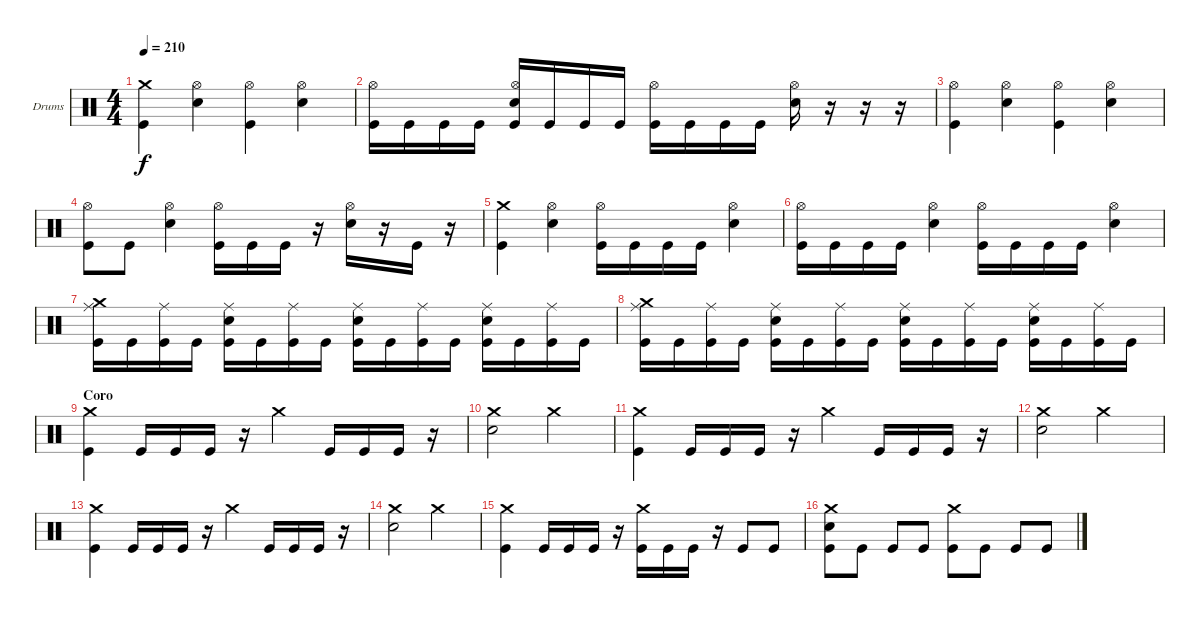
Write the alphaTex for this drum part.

\bracketExtendMode groupsimilarinstruments
\firstSystemTrackNameOrientation horizontal
\otherSystemsTrackNameOrientation horizontal
\track ("Drumkit" "Drums") {instrument percussion}
\staff {score}
\articulation defaults
\ts (4 4)
\tempo 210
\clef neutral
\ks c
("Crash medium (hit)" "Kick (hit)").4{dy f} ("Hi-Hat (open)" "Snare (hit) 2").4 ("Hi-Hat (open)" "Kick (hit)").4 ("Hi-Hat (open)" "Snare (hit) 2").4 |
("Hi-Hat (open)" "Kick (hit)").16 "Kick (hit)".16 "Kick (hit)".16 "Kick (hit)".16 ("Hi-Hat (open)" "Snare (hit) 2" "Kick (hit)").16 "Kick (hit)".16 "Kick (hit)".16 "Kick (hit)".16 ("Hi-Hat (open)" "Kick (hit)").16 "Kick (hit)".16 "Kick (hit)".16 "Kick (hit)".16 ("Hi-Hat (open)" "Snare (hit) 2").16 r.16 r.16 r.16 |
("Hi-Hat (open)" "Kick (hit)").4 ("Hi-Hat (open)" "Snare (hit) 2").4 ("Hi-Hat (open)" "Kick (hit)").4 ("Hi-Hat (open)" "Snare (hit) 2").4 |
("Hi-Hat (open)" "Kick (hit)").8 "Kick (hit)".8 ("Hi-Hat (open)" "Snare (hit) 2").4 ("Hi-Hat (open)" "Kick (hit)").16 "Kick (hit)".16 "Kick (hit)".16 r.16 ("Hi-Hat (open)" "Snare (hit) 2").16 r.16 "Kick (hit)".16 r.16 |
("Crash medium (hit)" "Kick (hit)").4 ("Hi-Hat (open)" "Snare (hit) 2").4 ("Hi-Hat (open)" "Kick (hit)").16 "Kick (hit)".16 "Kick (hit)".16 "Kick (hit)".16 ("Hi-Hat (open)" "Snare (hit) 2").4 |
("Hi-Hat (open)" "Kick (hit)").16 "Kick (hit)".16 "Kick (hit)".16 "Kick (hit)".16 ("Hi-Hat (open)" "Snare (hit) 2").4 ("Hi-Hat (open)" "Kick (hit)").16 "Kick (hit)".16 "Kick (hit)".16 "Kick (hit)".16 ("Hi-Hat (open)" "Snare (hit) 2").4 |
("Crash medium (hit)" "Ride (middle)" "Kick (hit)").16 "Kick (hit)".16 ("Ride (middle)" "Kick (hit)").16 "Kick (hit)".16 ("Ride (middle)" "Snare (hit) 2" "Kick (hit)").16 "Kick (hit)".16 ("Ride (middle)" "Kick (hit)").16 "Kick (hit)".16 ("Ride (middle)" "Snare (hit) 2" "Kick (hit)").16 "Kick (hit)".16 ("Ride (middle)" "Kick (hit)").16 "Kick (hit)".16 ("Ride (middle)" "Snare (hit) 2" "Kick (hit)").16 "Kick (hit)".16 ("Ride (middle)" "Kick (hit)").16 "Kick (hit)".16 |
("Crash medium (hit)" "Ride (middle)" "Kick (hit)").16 "Kick (hit)".16 ("Ride (middle)" "Kick (hit)").16 "Kick (hit)".16 ("Ride (middle)" "Snare (hit) 2" "Kick (hit)").16 "Kick (hit)".16 ("Ride (middle)" "Kick (hit)").16 "Kick (hit)".16 ("Ride (middle)" "Snare (hit) 2" "Kick (hit)").16 "Kick (hit)".16 ("Ride (middle)" "Kick (hit)").16 "Kick (hit)".16 ("Ride (middle)" "Snare (hit) 2" "Kick (hit)").16 "Kick (hit)".16 ("Ride (middle)" "Kick (hit)").16 "Kick (hit)".16 |
\section ("" "Coro")
("Crash medium (hit)" "Kick (hit)").4 "Kick (hit)".16 "Kick (hit)".16 "Kick (hit)".16 r.16 "Crash medium (hit)".4 "Kick (hit)".16 "Kick (hit)".16 "Kick (hit)".16 r.16 |
("Crash medium (hit)" "Snare (hit) 2").2 "Crash medium (hit)".2 |
("Crash medium (hit)" "Kick (hit)").4 "Kick (hit)".16 "Kick (hit)".16 "Kick (hit)".16 r.16 "Crash medium (hit)".4 "Kick (hit)".16 "Kick (hit)".16 "Kick (hit)".16 r.16 |
("Crash medium (hit)" "Snare (hit) 2").2 "Crash medium (hit)".2 |
("Crash medium (hit)" "Kick (hit)").4 "Kick (hit)".16 "Kick (hit)".16 "Kick (hit)".16 r.16 "Crash medium (hit)".4 "Kick (hit)".16 "Kick (hit)".16 "Kick (hit)".16 r.16 |
("Crash medium (hit)" "Snare (hit) 2").2 "Crash medium (hit)".2 |
("Crash medium (hit)" "Kick (hit)").4 "Kick (hit)".16 "Kick (hit)".16 "Kick (hit)".16 r.16 ("Crash medium (hit)" "Kick (hit)").16 "Kick (hit)".16 "Kick (hit)".16 r.16 "Kick (hit)".8 "Kick (hit)".8 |
("Crash medium (hit)" "Snare (hit) 2" "Kick (hit)").8 "Kick (hit)".8 "Kick (hit)".8 "Kick (hit)".8 ("Crash medium (hit)" "Kick (hit)").8 "Kick (hit)".8 "Kick (hit)".8 "Kick (hit)".8
